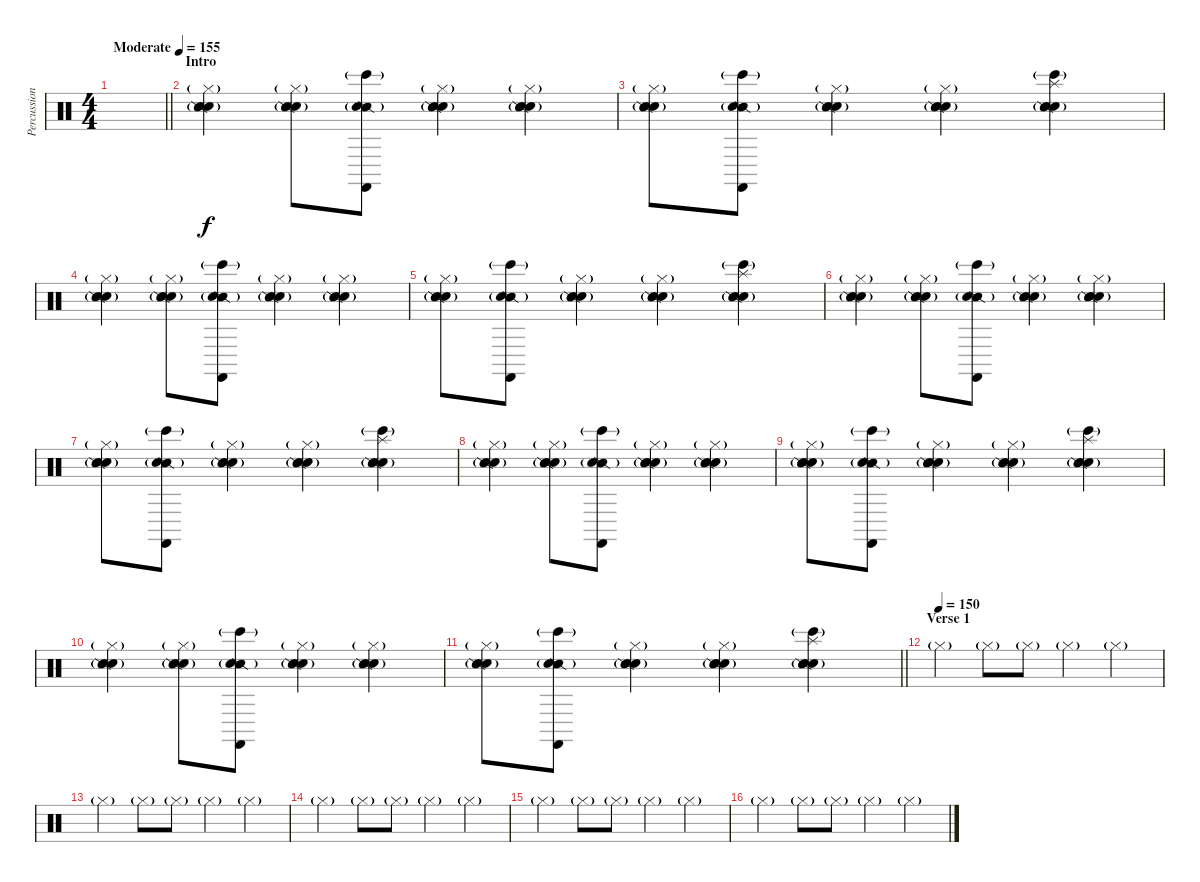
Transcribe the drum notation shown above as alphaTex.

\track ("Percussion" "Percussion") {instrument percussion}
\staff {score}
\articulation defaults
\ts (4 4)
\tempo (155 "Moderate")
\clef neutral
\barLineRight lightlight
\ks c
|
\section ("" "Intro")
("Hand Clap (hit)" "Snare (side stick) 2" "Snare (hit) 2"{g} "Hi-Hat (closed)"{g}).4 ("Hand Clap (hit)" "Snare (side stick) 2" "Snare (hit) 2"{g} "Hi-Hat (closed)"{g}).8 ("Castanets (hit)" "Snare (side stick) 2" "Snare (hit) 2"{g} "Bongo High (hit)"{g}).8 ("Hand Clap (hit)" "Snare (side stick) 2" "Snare (hit) 2"{g} "Hi-Hat (closed)"{g}).4 ("Hand Clap (hit)" "Snare (side stick) 2" "Snare (hit) 2"{g} "Hi-Hat (closed)"{g}).4 |
("Hand Clap (hit)" "Snare (side stick) 2" "Snare (hit) 2"{g} "Hi-Hat (closed)"{g}).8 ("Castanets (hit)" "Snare (side stick) 2" "Snare (hit) 2"{g} "Bongo High (hit)"{g}).8 ("Hand Clap (hit)" "Snare (side stick) 2" "Snare (hit) 2"{g} "Hi-Hat (closed)"{g}).4 ("Hand Clap (hit)" "Snare (side stick) 2" "Snare (hit) 2"{g} "Hi-Hat (closed)"{g}).4 ("Splash (hit)" "Hand Clap (hit)" "Snare (side stick) 2" "Snare (hit) 2"{g} "Bongo High (hit)"{g}).4 |
("Hand Clap (hit)" "Snare (side stick) 2" "Snare (hit) 2"{g} "Hi-Hat (closed)"{g}).4 ("Hand Clap (hit)" "Snare (side stick) 2" "Snare (hit) 2"{g} "Hi-Hat (closed)"{g}).8 ("Castanets (hit)" "Snare (side stick) 2" "Snare (hit) 2"{g} "Bongo High (hit)"{g}).8 ("Hand Clap (hit)" "Snare (side stick) 2" "Snare (hit) 2"{g} "Hi-Hat (closed)"{g}).4 ("Hand Clap (hit)" "Snare (side stick) 2" "Snare (hit) 2"{g} "Hi-Hat (closed)"{g}).4 |
("Hand Clap (hit)" "Snare (side stick) 2" "Snare (hit) 2"{g} "Hi-Hat (closed)"{g}).8 ("Castanets (hit)" "Snare (side stick) 2" "Snare (hit) 2"{g} "Bongo High (hit)"{g}).8 ("Hand Clap (hit)" "Snare (side stick) 2" "Snare (hit) 2"{g} "Hi-Hat (closed)"{g}).4 ("Hand Clap (hit)" "Snare (side stick) 2" "Snare (hit) 2"{g} "Hi-Hat (closed)"{g}).4 ("Splash (hit)" "Hand Clap (hit)" "Snare (side stick) 2" "Snare (hit) 2"{g} "Bongo High (hit)"{g}).4 |
("Hand Clap (hit)" "Snare (side stick) 2" "Snare (hit) 2"{g} "Hi-Hat (closed)"{g}).4 ("Hand Clap (hit)" "Snare (side stick) 2" "Snare (hit) 2"{g} "Hi-Hat (closed)"{g}).8 ("Castanets (hit)" "Snare (side stick) 2" "Snare (hit) 2"{g} "Bongo High (hit)"{g}).8 ("Hand Clap (hit)" "Snare (side stick) 2" "Snare (hit) 2"{g} "Hi-Hat (closed)"{g}).4 ("Hand Clap (hit)" "Snare (side stick) 2" "Snare (hit) 2"{g} "Hi-Hat (closed)"{g}).4 |
("Hand Clap (hit)" "Snare (side stick) 2" "Snare (hit) 2"{g} "Hi-Hat (closed)"{g}).8 ("Castanets (hit)" "Snare (side stick) 2" "Snare (hit) 2"{g} "Bongo High (hit)"{g}).8 ("Hand Clap (hit)" "Snare (side stick) 2" "Snare (hit) 2"{g} "Hi-Hat (closed)"{g}).4 ("Hand Clap (hit)" "Snare (side stick) 2" "Snare (hit) 2"{g} "Hi-Hat (closed)"{g}).4 ("Splash (hit)" "Hand Clap (hit)" "Snare (side stick) 2" "Snare (hit) 2"{g} "Bongo High (hit)"{g}).4 |
("Hand Clap (hit)" "Snare (side stick) 2" "Snare (hit) 2"{g} "Hi-Hat (closed)"{g}).4 ("Hand Clap (hit)" "Snare (side stick) 2" "Snare (hit) 2"{g} "Hi-Hat (closed)"{g}).8 ("Castanets (hit)" "Snare (side stick) 2" "Snare (hit) 2"{g} "Bongo High (hit)"{g}).8 ("Hand Clap (hit)" "Snare (side stick) 2" "Snare (hit) 2"{g} "Hi-Hat (closed)"{g}).4 ("Hand Clap (hit)" "Snare (side stick) 2" "Snare (hit) 2"{g} "Hi-Hat (closed)"{g}).4 |
("Hand Clap (hit)" "Snare (side stick) 2" "Snare (hit) 2"{g} "Hi-Hat (closed)"{g}).8 ("Castanets (hit)" "Snare (side stick) 2" "Snare (hit) 2"{g} "Bongo High (hit)"{g}).8 ("Hand Clap (hit)" "Snare (side stick) 2" "Snare (hit) 2"{g} "Hi-Hat (closed)"{g}).4 ("Hand Clap (hit)" "Snare (side stick) 2" "Snare (hit) 2"{g} "Hi-Hat (closed)"{g}).4 ("Splash (hit)" "Hand Clap (hit)" "Snare (side stick) 2" "Snare (hit) 2"{g} "Bongo High (hit)"{g}).4 |
("Hand Clap (hit)" "Snare (side stick) 2" "Snare (hit) 2"{g} "Hi-Hat (closed)"{g}).4 ("Hand Clap (hit)" "Snare (side stick) 2" "Snare (hit) 2"{g} "Hi-Hat (closed)"{g}).8 ("Castanets (hit)" "Snare (side stick) 2" "Snare (hit) 2"{g} "Bongo High (hit)"{g}).8 ("Hand Clap (hit)" "Snare (side stick) 2" "Snare (hit) 2"{g} "Hi-Hat (closed)"{g}).4 ("Hand Clap (hit)" "Snare (side stick) 2" "Snare (hit) 2"{g} "Hi-Hat (closed)"{g}).4 |
\barLineRight lightlight
("Hand Clap (hit)" "Snare (side stick) 2" "Snare (hit) 2"{g} "Hi-Hat (closed)"{g}).8 ("Castanets (hit)" "Snare (side stick) 2" "Snare (hit) 2"{g} "Bongo High (hit)"{g}).8 ("Hand Clap (hit)" "Snare (side stick) 2" "Snare (hit) 2"{g} "Hi-Hat (closed)"{g}).4 ("Hand Clap (hit)" "Snare (side stick) 2" "Snare (hit) 2"{g} "Hi-Hat (closed)"{g}).4 ("Splash (hit)" "Hand Clap (hit)" "Snare (side stick) 2" "Snare (hit) 2"{g} "Bongo High (hit)"{g}).4 |
\section ("" "Verse 1")
\tempo (150)
"Hi-Hat (closed)"{g}.4 "Hi-Hat (closed)"{g}.8 "Hi-Hat (closed)"{g}.8 "Hi-Hat (closed)"{g}.4 "Hi-Hat (closed)"{g}.4 |
"Hi-Hat (closed)"{g}.4 "Hi-Hat (closed)"{g}.8 "Hi-Hat (closed)"{g}.8 "Hi-Hat (closed)"{g}.4 "Hi-Hat (closed)"{g}.4 |
"Hi-Hat (closed)"{g}.4 "Hi-Hat (closed)"{g}.8 "Hi-Hat (closed)"{g}.8 "Hi-Hat (closed)"{g}.4 "Hi-Hat (closed)"{g}.4 |
"Hi-Hat (closed)"{g}.4 "Hi-Hat (closed)"{g}.8 "Hi-Hat (closed)"{g}.8 "Hi-Hat (closed)"{g}.4 "Hi-Hat (closed)"{g}.4 |
"Hi-Hat (closed)"{g}.4 "Hi-Hat (closed)"{g}.8 "Hi-Hat (closed)"{g}.8 "Hi-Hat (closed)"{g}.4 "Hi-Hat (closed)"{g}.4
